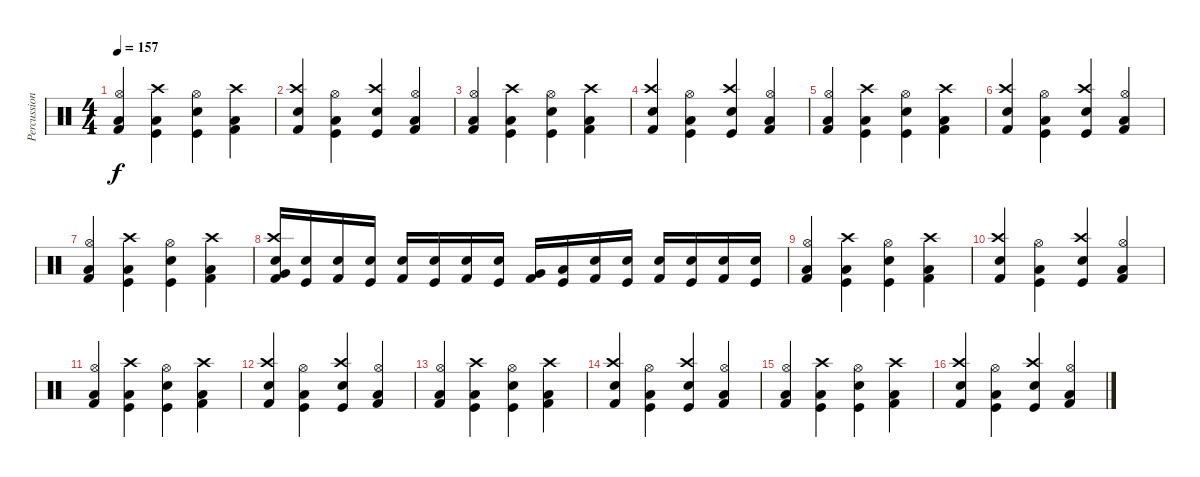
\track ("Percussions" "Percussion") {instrument percussion}
\staff {score}
\articulation defaults
\ts (4 4)
\tempo 157
\clef neutral
\ks c
("Kick (hit) 2" "Hi-Hat (open)" "Low Tom (hit)").4{dy f} ("Kick (hit)" "Crash high (hit)" "Low Tom (hit)").4 ("Kick (hit)" "Hi-Hat (open)" "Electric Snare (hit)").4 ("Kick (hit) 2" "Crash high (hit)" "Low Tom (hit)").4 |
("Kick (hit) 2" "Crash high (hit)" "Electric Snare (hit)").4 ("Kick (hit)" "Hi-Hat (open)" "Low Tom (hit)").4 ("Kick (hit)" "Crash high (hit)" "Electric Snare (hit)").4 ("Kick (hit) 2" "Hi-Hat (open)" "Low Tom (hit)").4 |
("Kick (hit) 2" "Hi-Hat (open)" "Low Tom (hit)").4 ("Kick (hit)" "Crash high (hit)" "Low Tom (hit)").4 ("Kick (hit)" "Hi-Hat (open)" "Electric Snare (hit)").4 ("Kick (hit) 2" "Crash high (hit)" "Low Tom (hit)").4 |
("Kick (hit) 2" "Crash high (hit)" "Electric Snare (hit)").4 ("Kick (hit)" "Hi-Hat (open)" "Low Tom (hit)").4 ("Kick (hit)" "Crash high (hit)" "Electric Snare (hit)").4 ("Kick (hit) 2" "Hi-Hat (open)" "Low Tom (hit)").4 |
("Kick (hit) 2" "Hi-Hat (open)" "Low Tom (hit)").4 ("Kick (hit)" "Crash high (hit)" "Low Tom (hit)").4 ("Kick (hit)" "Hi-Hat (open)" "Electric Snare (hit)").4 ("Kick (hit) 2" "Crash high (hit)" "Low Tom (hit)").4 |
("Kick (hit) 2" "Crash high (hit)" "Electric Snare (hit)").4 ("Kick (hit)" "Hi-Hat (open)" "Low Tom (hit)").4 ("Kick (hit)" "Crash high (hit)" "Electric Snare (hit)").4 ("Kick (hit) 2" "Hi-Hat (open)" "Low Tom (hit)").4 |
("Kick (hit) 2" "Hi-Hat (open)" "Low Tom (hit)").4 ("Kick (hit)" "Crash high (hit)" "Low Tom (hit)").4 ("Kick (hit)" "Hi-Hat (open)" "Electric Snare (hit)").4 ("Kick (hit) 2" "Crash high (hit)" "Low Tom (hit)").4 |
("Kick (hit) 2" "Very Low Tom (hit)" "Crash high (hit)" "Electric Snare (hit)").16 ("Kick (hit)" "Electric Snare (hit)").16 ("Kick (hit) 2" "Electric Snare (hit)").16 ("Kick (hit)" "Electric Snare (hit)").16 ("Kick (hit) 2" "Electric Snare (hit)").16 ("Kick (hit)" "Electric Snare (hit)").16 ("Kick (hit) 2" "Electric Snare (hit)").16 ("Kick (hit)" "Electric Snare (hit)").16 ("Kick (hit) 2" "Very Low Tom (hit)").16 ("Kick (hit)" "Low Tom (hit)").16 ("Kick (hit) 2" "Electric Snare (hit)").16 ("Kick (hit)" "Electric Snare (hit)").16 ("Kick (hit) 2" "Electric Snare (hit)").16 ("Kick (hit)" "Electric Snare (hit)").16 ("Kick (hit) 2" "Electric Snare (hit)").16 ("Kick (hit)" "Electric Snare (hit)").16 |
("Kick (hit) 2" "Hi-Hat (open)" "Low Tom (hit)").4 ("Kick (hit)" "Crash high (hit)" "Low Tom (hit)").4 ("Kick (hit)" "Hi-Hat (open)" "Electric Snare (hit)").4 ("Kick (hit) 2" "Crash high (hit)" "Low Tom (hit)").4 |
("Kick (hit) 2" "Crash high (hit)" "Electric Snare (hit)").4 ("Kick (hit)" "Hi-Hat (open)" "Low Tom (hit)").4 ("Kick (hit)" "Crash high (hit)" "Electric Snare (hit)").4 ("Kick (hit) 2" "Hi-Hat (open)" "Low Tom (hit)").4 |
("Kick (hit) 2" "Hi-Hat (open)" "Low Tom (hit)").4 ("Kick (hit)" "Crash high (hit)" "Low Tom (hit)").4 ("Kick (hit)" "Hi-Hat (open)" "Electric Snare (hit)").4 ("Kick (hit) 2" "Crash high (hit)" "Low Tom (hit)").4 |
("Kick (hit) 2" "Crash high (hit)" "Electric Snare (hit)").4 ("Kick (hit)" "Hi-Hat (open)" "Low Tom (hit)").4 ("Kick (hit)" "Crash high (hit)" "Electric Snare (hit)").4 ("Kick (hit) 2" "Hi-Hat (open)" "Low Tom (hit)").4 |
("Kick (hit) 2" "Hi-Hat (open)" "Low Tom (hit)").4 ("Kick (hit)" "Crash high (hit)" "Low Tom (hit)").4 ("Kick (hit)" "Hi-Hat (open)" "Electric Snare (hit)").4 ("Kick (hit) 2" "Crash high (hit)" "Low Tom (hit)").4 |
("Kick (hit) 2" "Crash high (hit)" "Electric Snare (hit)").4 ("Kick (hit)" "Hi-Hat (open)" "Low Tom (hit)").4 ("Kick (hit)" "Crash high (hit)" "Electric Snare (hit)").4 ("Kick (hit) 2" "Hi-Hat (open)" "Low Tom (hit)").4 |
("Kick (hit) 2" "Hi-Hat (open)" "Low Tom (hit)").4 ("Kick (hit)" "Crash high (hit)" "Low Tom (hit)").4 ("Kick (hit)" "Hi-Hat (open)" "Electric Snare (hit)").4 ("Kick (hit) 2" "Crash high (hit)" "Low Tom (hit)").4 |
("Kick (hit) 2" "Crash high (hit)" "Electric Snare (hit)").4 ("Kick (hit)" "Hi-Hat (open)" "Low Tom (hit)").4 ("Kick (hit)" "Crash high (hit)" "Electric Snare (hit)").4 ("Kick (hit) 2" "Hi-Hat (open)" "Low Tom (hit)").4
